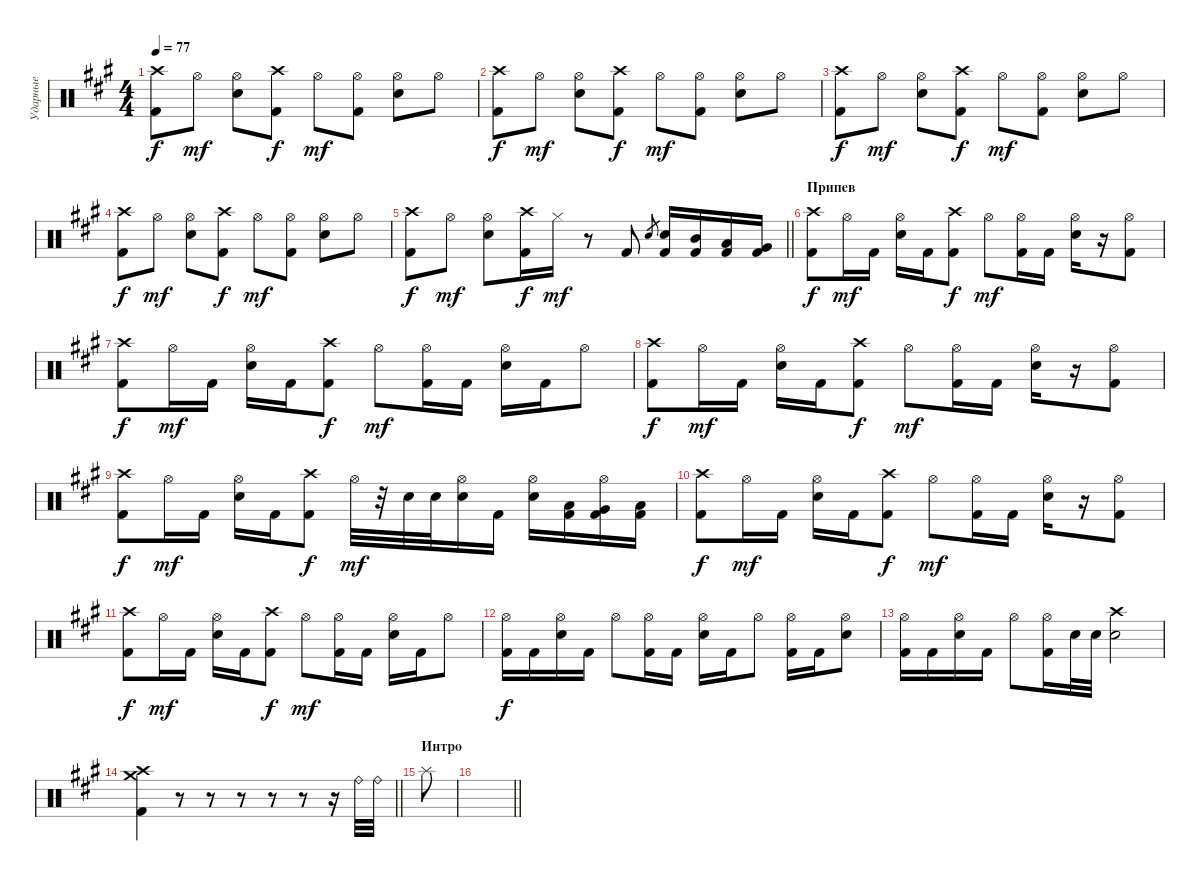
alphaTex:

\track ("Ударные" "Ударные") {instrument percussion}
\staff {score}
\articulation defaults
\ts (4 4)
\tempo 77
\clef neutral
\ks f#minor
("Crash high (hit)" "Kick (hit) 2").8{dy f} "Hi-Hat (open)".8{dy mf} ("Hi-Hat (open)" "Electric Snare (hit)").8 ("Crash high (hit)" "Kick (hit) 2").8{dy f} "Hi-Hat (open)".8{dy mf} ("Hi-Hat (open)" "Kick (hit) 2").8 ("Hi-Hat (open)" "Electric Snare (hit)").8 "Hi-Hat (open)".8 |
("Crash high (hit)" "Kick (hit) 2").8{dy f} "Hi-Hat (open)".8{dy mf} ("Hi-Hat (open)" "Electric Snare (hit)").8 ("Crash high (hit)" "Kick (hit) 2").8{dy f} "Hi-Hat (open)".8{dy mf} ("Hi-Hat (open)" "Kick (hit) 2").8 ("Hi-Hat (open)" "Electric Snare (hit)").8 "Hi-Hat (open)".8 |
("Crash high (hit)" "Kick (hit) 2").8{dy f} "Hi-Hat (open)".8{dy mf} ("Hi-Hat (open)" "Electric Snare (hit)").8 ("Crash high (hit)" "Kick (hit) 2").8{dy f} "Hi-Hat (open)".8{dy mf} ("Hi-Hat (open)" "Kick (hit) 2").8 ("Hi-Hat (open)" "Electric Snare (hit)").8 "Hi-Hat (open)".8 |
("Crash high (hit)" "Kick (hit) 2").8{dy f} "Hi-Hat (open)".8{dy mf} ("Hi-Hat (open)" "Electric Snare (hit)").8 ("Crash high (hit)" "Kick (hit) 2").8{dy f} "Hi-Hat (open)".8{dy mf} ("Hi-Hat (open)" "Kick (hit) 2").8 ("Hi-Hat (open)" "Electric Snare (hit)").8 "Hi-Hat (open)".8 |
\barLineRight lightlight
("Crash high (hit)" "Kick (hit) 2").8{dy f} "Hi-Hat (open)".8{dy mf} ("Hi-Hat (open)" "Electric Snare (hit)").8 ("Crash high (hit)" "Kick (hit) 2").16{dy f} "Hi-Hat (closed)".16{dy mf} r.8 "Kick (hit) 2".8 "Electric Snare (hit)".8{gr} ("Electric Snare (hit)" "Kick (hit) 2").16 ("Mid Tom (hit)" "Kick (hit) 2").16 ("Low Tom (hit)" "Kick (hit) 2").16 ("Very Low Tom (hit)" "Kick (hit) 2").16 |
\section ("" "Припев")
("Crash high (hit)" "Kick (hit) 2").8{dy f} "Hi-Hat (open)".16{dy mf} "Kick (hit) 2".16 ("Hi-Hat (open)" "Electric Snare (hit)").16 "Kick (hit) 2".16 ("Crash high (hit)" "Kick (hit) 2").8{dy f} "Hi-Hat (open)".8{dy mf} ("Hi-Hat (open)" "Kick (hit) 2").16 "Kick (hit) 2".16 ("Hi-Hat (open)" "Electric Snare (hit)").16 r.16 ("Hi-Hat (open)" "Kick (hit) 2").8 |
("Crash high (hit)" "Kick (hit) 2").8{dy f} "Hi-Hat (open)".16{dy mf} "Kick (hit) 2".16 ("Hi-Hat (open)" "Electric Snare (hit)").16 "Kick (hit) 2".16 ("Crash high (hit)" "Kick (hit) 2").8{dy f} "Hi-Hat (open)".8{dy mf} ("Hi-Hat (open)" "Kick (hit) 2").16 "Kick (hit) 2".16 ("Hi-Hat (open)" "Electric Snare (hit)").16 "Kick (hit) 2".16 "Hi-Hat (open)".8 |
("Crash high (hit)" "Kick (hit) 2").8{dy f} "Hi-Hat (open)".16{dy mf} "Kick (hit) 2".16 ("Hi-Hat (open)" "Electric Snare (hit)").16 "Kick (hit) 2".16 ("Crash high (hit)" "Kick (hit) 2").8{dy f} "Hi-Hat (open)".8{dy mf} ("Hi-Hat (open)" "Kick (hit) 2").16 "Kick (hit) 2".16 ("Hi-Hat (open)" "Electric Snare (hit)").16 r.16 ("Hi-Hat (open)" "Kick (hit) 2").8 |
("Crash high (hit)" "Kick (hit) 2").8{dy f} "Hi-Hat (open)".16{dy mf} "Kick (hit) 2".16 ("Hi-Hat (open)" "Electric Snare (hit)").16 "Kick (hit) 2".16 ("Crash high (hit)" "Kick (hit) 2").8{dy f} "Hi-Hat (open)".32{dy mf} r.32 "Electric Snare (hit)".32 "Electric Snare (hit)".32 ("Hi-Hat (open)" "Electric Snare (hit)").16 "Kick (hit) 2".16 ("Hi-Hat (open)" "Electric Snare (hit)").16 ("Low Tom (hit)" "Kick (hit) 2").16 ("Hi-Hat (open)" "Very Low Tom (hit)" "Kick (hit) 2").16 ("Low Floor Tom (hit)" "Kick (hit) 2").16 |
("Crash high (hit)" "Kick (hit) 2").8{dy f} "Hi-Hat (open)".16{dy mf} "Kick (hit) 2".16 ("Hi-Hat (open)" "Electric Snare (hit)").16 "Kick (hit) 2".16 ("Crash high (hit)" "Kick (hit) 2").8{dy f} "Hi-Hat (open)".8{dy mf} ("Hi-Hat (open)" "Kick (hit) 2").16 "Kick (hit) 2".16 ("Hi-Hat (open)" "Electric Snare (hit)").16 r.16 ("Hi-Hat (open)" "Kick (hit) 2").8 |
("Crash high (hit)" "Kick (hit) 2").8{dy f} "Hi-Hat (open)".16{dy mf} "Kick (hit) 2".16 ("Hi-Hat (open)" "Electric Snare (hit)").16 "Kick (hit) 2".16 ("Crash high (hit)" "Kick (hit) 2").8{dy f} "Hi-Hat (open)".8{dy mf} ("Hi-Hat (open)" "Kick (hit) 2").16 "Kick (hit) 2".16 ("Hi-Hat (open)" "Electric Snare (hit)").16 "Kick (hit) 2".16 "Hi-Hat (open)".8 |
("Hi-Hat (open)" "Kick (hit) 2").16{dy f} "Kick (hit) 2".16 ("Hi-Hat (open)" "Electric Snare (hit)").16 "Kick (hit) 2".16 "Hi-Hat (open)".8 ("Hi-Hat (open)" "Kick (hit) 2").16 "Kick (hit) 2".16 ("Hi-Hat (open)" "Electric Snare (hit)").16 "Kick (hit) 2".16 "Hi-Hat (open)".8 ("Hi-Hat (open)" "Kick (hit) 2").16 "Kick (hit) 2".16 ("Hi-Hat (open)" "Electric Snare (hit)").8 |
("Hi-Hat (open)" "Kick (hit) 2").16 "Kick (hit) 2".16 ("Hi-Hat (open)" "Electric Snare (hit)").16 "Kick (hit) 2".16 "Hi-Hat (open)".8 ("Hi-Hat (open)" "Kick (hit) 2").16 "Electric Snare (hit)".32 "Electric Snare (hit)".32 ("Crash high (hit)" "Electric Snare (hit)").2 |
\barLineRight lightlight
("Crash high (hit)" "Crash medium (hit)" "Kick (hit) 2").4 r.8 r.8 r.8 r.8 r.8 r.16 "Ride (bell)".32 "Ride (bell)".32 |
\section ("" "Интро")
"Splash (hit)".8 |
\barLineRight lightlight
